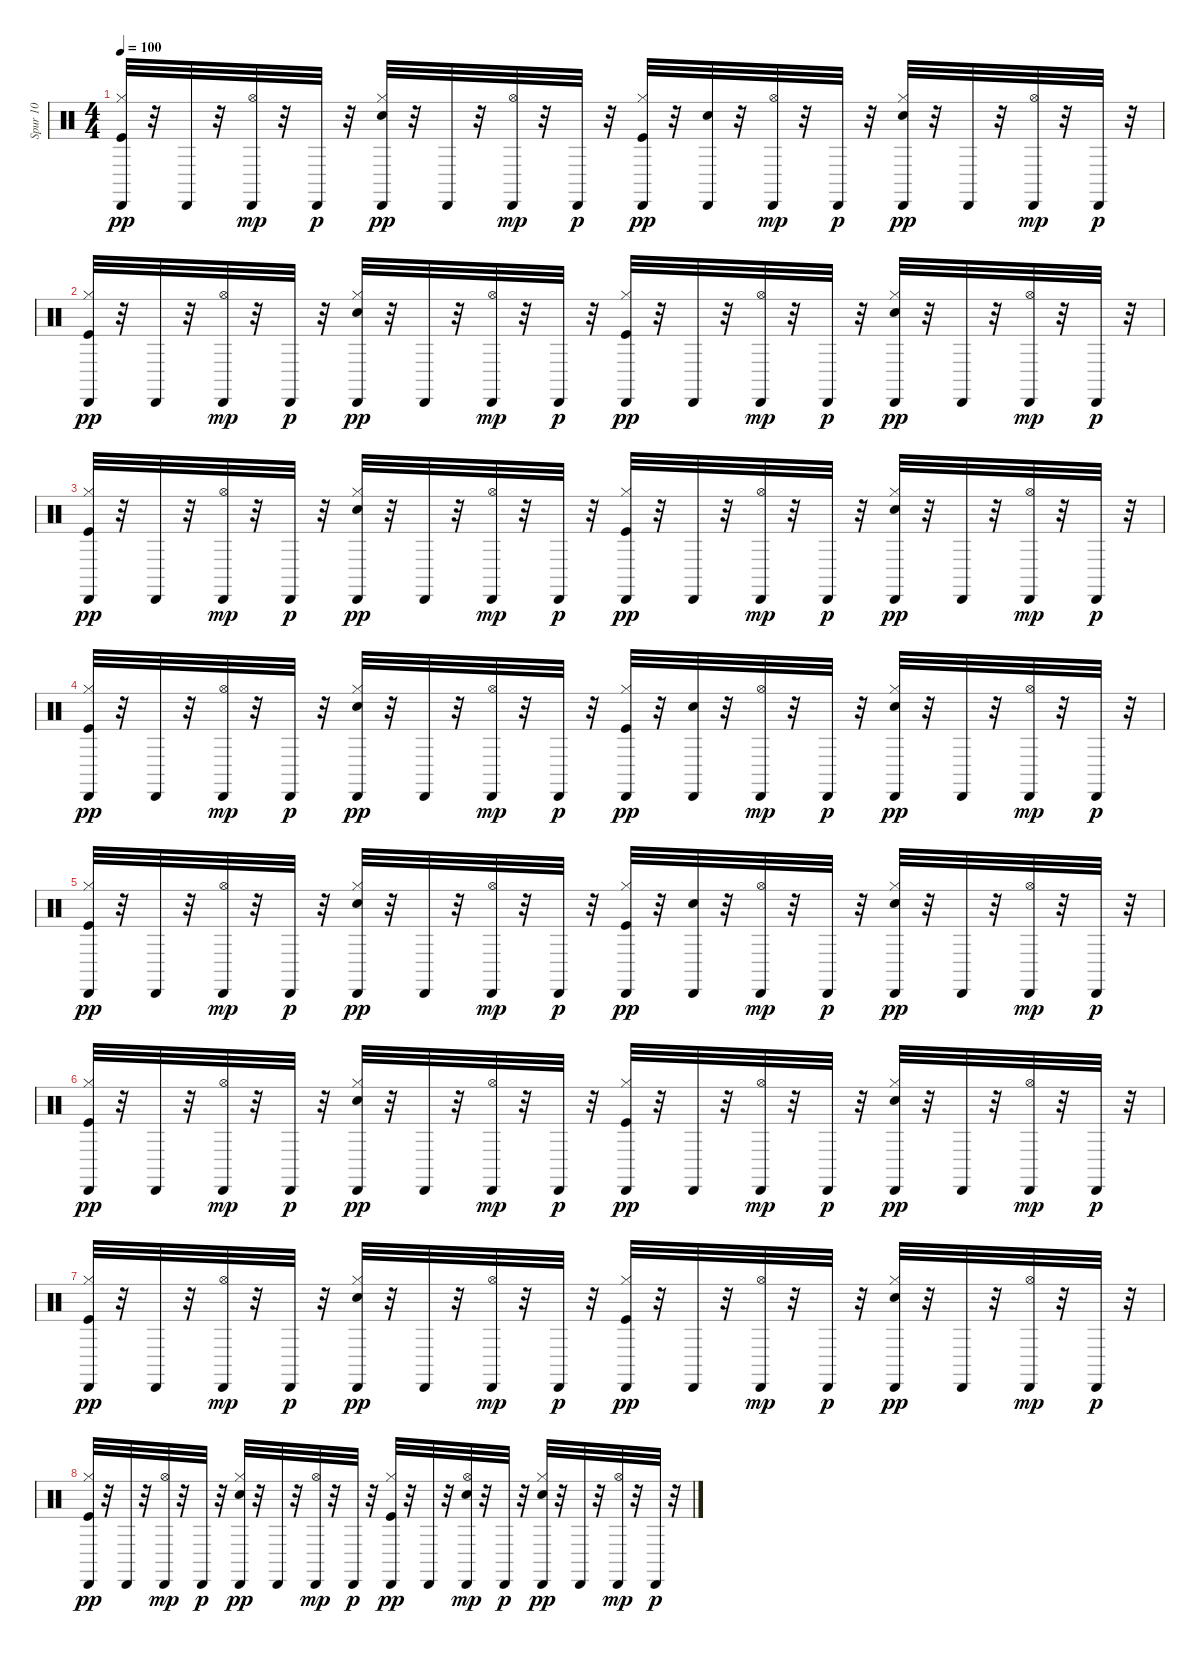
\track ("Spur 10" "Spur 10") {instrument percussion}
\staff {score}
\articulation defaults
\ts (4 4)
\tempo 100
\clef neutral
\ks c
("Kick (hit)" "Hi-Hat (closed)" "Cabasa (hit)").32{dy pp} r.32 "Cabasa (hit)".32 r.32 ("Hi-Hat (open)" "Cabasa (hit)").32{dy mp} r.32 "Cabasa (hit)".32{dy p} r.32 ("Electric Snare (hit)" "Hi-Hat (closed)" "Cabasa (hit)").32{dy pp} r.32 "Cabasa (hit)".32 r.32 ("Hi-Hat (open)" "Cabasa (hit)").32{dy mp} r.32 "Cabasa (hit)".32{dy p} r.32 ("Kick (hit)" "Hi-Hat (closed)" "Cabasa (hit)").32{dy pp} r.32 ("Electric Snare (hit)" "Cabasa (hit)").32 r.32 ("Hi-Hat (open)" "Cabasa (hit)").32{dy mp} r.32 "Cabasa (hit)".32{dy p} r.32 ("Electric Snare (hit)" "Hi-Hat (closed)" "Cabasa (hit)").32{dy pp} r.32 "Cabasa (hit)".32 r.32 ("Hi-Hat (open)" "Cabasa (hit)").32{dy mp} r.32 "Cabasa (hit)".32{dy p} r.32 |
("Kick (hit)" "Hi-Hat (closed)" "Cabasa (hit)").32{dy pp} r.32 "Cabasa (hit)".32 r.32 ("Hi-Hat (open)" "Cabasa (hit)").32{dy mp} r.32 "Cabasa (hit)".32{dy p} r.32 ("Electric Snare (hit)" "Hi-Hat (closed)" "Cabasa (hit)").32{dy pp} r.32 "Cabasa (hit)".32 r.32 ("Hi-Hat (open)" "Cabasa (hit)").32{dy mp} r.32 "Cabasa (hit)".32{dy p} r.32 ("Kick (hit)" "Hi-Hat (closed)" "Cabasa (hit)").32{dy pp} r.32 "Cabasa (hit)".32 r.32 ("Hi-Hat (open)" "Cabasa (hit)").32{dy mp} r.32 "Cabasa (hit)".32{dy p} r.32 ("Electric Snare (hit)" "Hi-Hat (closed)" "Cabasa (hit)").32{dy pp} r.32 "Cabasa (hit)".32 r.32 ("Hi-Hat (open)" "Cabasa (hit)").32{dy mp} r.32 "Cabasa (hit)".32{dy p} r.32 |
("Kick (hit)" "Hi-Hat (closed)" "Cabasa (hit)").32{dy pp} r.32 "Cabasa (hit)".32 r.32 ("Hi-Hat (open)" "Cabasa (hit)").32{dy mp} r.32 "Cabasa (hit)".32{dy p} r.32 ("Electric Snare (hit)" "Hi-Hat (closed)" "Cabasa (hit)").32{dy pp} r.32 "Cabasa (hit)".32 r.32 ("Hi-Hat (open)" "Cabasa (hit)").32{dy mp} r.32 "Cabasa (hit)".32{dy p} r.32 ("Kick (hit)" "Hi-Hat (closed)" "Cabasa (hit)").32{dy pp} r.32 "Cabasa (hit)".32 r.32 ("Hi-Hat (open)" "Cabasa (hit)").32{dy mp} r.32 "Cabasa (hit)".32{dy p} r.32 ("Electric Snare (hit)" "Hi-Hat (closed)" "Cabasa (hit)").32{dy pp} r.32 "Cabasa (hit)".32 r.32 ("Hi-Hat (open)" "Cabasa (hit)").32{dy mp} r.32 "Cabasa (hit)".32{dy p} r.32 |
("Kick (hit)" "Hi-Hat (closed)" "Cabasa (hit)").32{dy pp} r.32 "Cabasa (hit)".32 r.32 ("Hi-Hat (open)" "Cabasa (hit)").32{dy mp} r.32 "Cabasa (hit)".32{dy p} r.32 ("Electric Snare (hit)" "Hi-Hat (closed)" "Cabasa (hit)").32{dy pp} r.32 "Cabasa (hit)".32 r.32 ("Hi-Hat (open)" "Cabasa (hit)").32{dy mp} r.32 "Cabasa (hit)".32{dy p} r.32 ("Kick (hit)" "Hi-Hat (closed)" "Cabasa (hit)").32{dy pp} r.32 ("Electric Snare (hit)" "Cabasa (hit)").32 r.32 ("Hi-Hat (open)" "Cabasa (hit)").32{dy mp} r.32 "Cabasa (hit)".32{dy p} r.32 ("Electric Snare (hit)" "Hi-Hat (closed)" "Cabasa (hit)").32{dy pp} r.32 "Cabasa (hit)".32 r.32 ("Hi-Hat (open)" "Cabasa (hit)").32{dy mp} r.32 "Cabasa (hit)".32{dy p} r.32 |
("Kick (hit)" "Hi-Hat (closed)" "Cabasa (hit)").32{dy pp} r.32 "Cabasa (hit)".32 r.32 ("Hi-Hat (open)" "Cabasa (hit)").32{dy mp} r.32 "Cabasa (hit)".32{dy p} r.32 ("Electric Snare (hit)" "Hi-Hat (closed)" "Cabasa (hit)").32{dy pp} r.32 "Cabasa (hit)".32 r.32 ("Hi-Hat (open)" "Cabasa (hit)").32{dy mp} r.32 "Cabasa (hit)".32{dy p} r.32 ("Kick (hit)" "Hi-Hat (closed)" "Cabasa (hit)").32{dy pp} r.32 ("Electric Snare (hit)" "Cabasa (hit)").32 r.32 ("Hi-Hat (open)" "Cabasa (hit)").32{dy mp} r.32 "Cabasa (hit)".32{dy p} r.32 ("Electric Snare (hit)" "Hi-Hat (closed)" "Cabasa (hit)").32{dy pp} r.32 "Cabasa (hit)".32 r.32 ("Hi-Hat (open)" "Cabasa (hit)").32{dy mp} r.32 "Cabasa (hit)".32{dy p} r.32 |
("Kick (hit)" "Hi-Hat (closed)" "Cabasa (hit)").32{dy pp} r.32 "Cabasa (hit)".32 r.32 ("Hi-Hat (open)" "Cabasa (hit)").32{dy mp} r.32 "Cabasa (hit)".32{dy p} r.32 ("Electric Snare (hit)" "Hi-Hat (closed)" "Cabasa (hit)").32{dy pp} r.32 "Cabasa (hit)".32 r.32 ("Hi-Hat (open)" "Cabasa (hit)").32{dy mp} r.32 "Cabasa (hit)".32{dy p} r.32 ("Kick (hit)" "Hi-Hat (closed)" "Cabasa (hit)").32{dy pp} r.32 "Cabasa (hit)".32 r.32 ("Hi-Hat (open)" "Cabasa (hit)").32{dy mp} r.32 "Cabasa (hit)".32{dy p} r.32 ("Electric Snare (hit)" "Hi-Hat (closed)" "Cabasa (hit)").32{dy pp} r.32 "Cabasa (hit)".32 r.32 ("Hi-Hat (open)" "Cabasa (hit)").32{dy mp} r.32 "Cabasa (hit)".32{dy p} r.32 |
("Kick (hit)" "Hi-Hat (closed)" "Cabasa (hit)").32{dy pp} r.32 "Cabasa (hit)".32 r.32 ("Hi-Hat (open)" "Cabasa (hit)").32{dy mp} r.32 "Cabasa (hit)".32{dy p} r.32 ("Electric Snare (hit)" "Hi-Hat (closed)" "Cabasa (hit)").32{dy pp} r.32 "Cabasa (hit)".32 r.32 ("Hi-Hat (open)" "Cabasa (hit)").32{dy mp} r.32 "Cabasa (hit)".32{dy p} r.32 ("Kick (hit)" "Hi-Hat (closed)" "Cabasa (hit)").32{dy pp} r.32 "Cabasa (hit)".32 r.32 ("Hi-Hat (open)" "Cabasa (hit)").32{dy mp} r.32 "Cabasa (hit)".32{dy p} r.32 ("Electric Snare (hit)" "Hi-Hat (closed)" "Cabasa (hit)").32{dy pp} r.32 "Cabasa (hit)".32 r.32 ("Hi-Hat (open)" "Cabasa (hit)").32{dy mp} r.32 "Cabasa (hit)".32{dy p} r.32 |
("Kick (hit)" "Hi-Hat (closed)" "Cabasa (hit)").32{dy pp} r.32 "Cabasa (hit)".32 r.32 ("Hi-Hat (open)" "Cabasa (hit)").32{dy mp} r.32 "Cabasa (hit)".32{dy p} r.32 ("Electric Snare (hit)" "Hi-Hat (closed)" "Cabasa (hit)").32{dy pp} r.32 "Cabasa (hit)".32 r.32 ("Hi-Hat (open)" "Cabasa (hit)").32{dy mp} r.32 "Cabasa (hit)".32{dy p} r.32 ("Kick (hit)" "Hi-Hat (closed)" "Cabasa (hit)").32{dy pp} r.32 "Cabasa (hit)".32 r.32 ("Electric Snare (hit)" "Hi-Hat (open)" "Cabasa (hit)").32{dy mp} r.32 "Cabasa (hit)".32{dy p} r.32 ("Electric Snare (hit)" "Hi-Hat (closed)" "Cabasa (hit)").32{dy pp} r.32 "Cabasa (hit)".32 r.32 ("Hi-Hat (open)" "Cabasa (hit)").32{dy mp} r.32 "Cabasa (hit)".32{dy p} r.32
